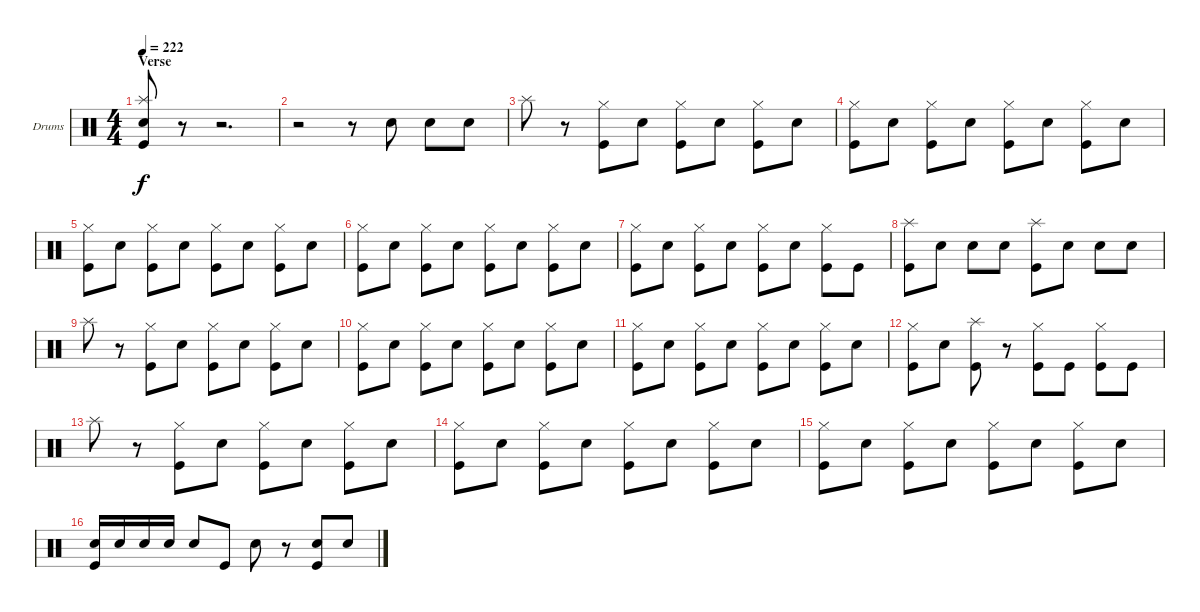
\defaultSystemsLayout 4
\bracketExtendMode groupsimilarinstruments
\firstSystemTrackNameOrientation horizontal
\otherSystemsTrackNameOrientation horizontal
\track ("Drumkit" "Drums") {mute instrument percussion}
\staff {score}
\articulation defaults
\ts (4 4)
\section ("" "Verse")
\tempo 222
\clef neutral
\ks c
("Snare (hit) 2" "Splash (hit)" "Kick (hit)").8{dy f} r.8 r.2{d} |
r.2 r.8 "Snare (hit) 2".8 "Snare (hit) 2".8 "Snare (hit) 2".8 |
"Splash (hit)".8 r.8 ("Hi-Hat (closed)" "Kick (hit)").8 "Snare (hit) 2".8 ("Hi-Hat (closed)" "Kick (hit)").8 "Snare (hit) 2".8 ("Hi-Hat (closed)" "Kick (hit)").8 "Snare (hit) 2".8 |
("Hi-Hat (closed)" "Kick (hit)").8 "Snare (hit) 2".8 ("Hi-Hat (closed)" "Kick (hit)").8 "Snare (hit) 2".8 ("Hi-Hat (closed)" "Kick (hit)").8 "Snare (hit) 2".8 ("Hi-Hat (closed)" "Kick (hit)").8 "Snare (hit) 2".8 |
("Hi-Hat (closed)" "Kick (hit)").8 "Snare (hit) 2".8 ("Hi-Hat (closed)" "Kick (hit)").8 "Snare (hit) 2".8 ("Hi-Hat (closed)" "Kick (hit)").8 "Snare (hit) 2".8 ("Hi-Hat (closed)" "Kick (hit)").8 "Snare (hit) 2".8 |
("Hi-Hat (closed)" "Kick (hit)").8 "Snare (hit) 2".8 ("Hi-Hat (closed)" "Kick (hit)").8 "Snare (hit) 2".8 ("Hi-Hat (closed)" "Kick (hit)").8 "Snare (hit) 2".8 ("Hi-Hat (closed)" "Kick (hit)").8 "Snare (hit) 2".8 |
("Hi-Hat (closed)" "Kick (hit)").8 "Snare (hit) 2".8 ("Hi-Hat (closed)" "Kick (hit)").8 "Snare (hit) 2".8 ("Hi-Hat (closed)" "Kick (hit)").8 "Snare (hit) 2".8 ("Hi-Hat (closed)" "Kick (hit)").8 "Kick (hit)".8 |
("Splash (hit)" "Kick (hit)").8 "Snare (hit) 2".8 "Snare (hit) 2".8 "Snare (hit) 2".8 ("Splash (hit)" "Kick (hit)").8 "Snare (hit) 2".8 "Snare (hit) 2".8 "Snare (hit) 2".8 |
"Splash (hit)".8 r.8 ("Hi-Hat (closed)" "Kick (hit)").8 "Snare (hit) 2".8 ("Hi-Hat (closed)" "Kick (hit)").8 "Snare (hit) 2".8 ("Hi-Hat (closed)" "Kick (hit)").8 "Snare (hit) 2".8 |
("Hi-Hat (closed)" "Kick (hit)").8 "Snare (hit) 2".8 ("Hi-Hat (closed)" "Kick (hit)").8 "Snare (hit) 2".8 ("Hi-Hat (closed)" "Kick (hit)").8 "Snare (hit) 2".8 ("Hi-Hat (closed)" "Kick (hit)").8 "Snare (hit) 2".8 |
("Hi-Hat (closed)" "Kick (hit)").8 "Snare (hit) 2".8 ("Hi-Hat (closed)" "Kick (hit)").8 "Snare (hit) 2".8 ("Hi-Hat (closed)" "Kick (hit)").8 "Snare (hit) 2".8 ("Hi-Hat (closed)" "Kick (hit)").8 "Snare (hit) 2".8 |
("Hi-Hat (closed)" "Kick (hit)").8 "Snare (hit) 2".8 ("Kick (hit)" "Splash (hit)").8 r.8 ("Hi-Hat (closed)" "Kick (hit)").8 "Kick (hit)".8 ("Hi-Hat (closed)" "Kick (hit)").8 "Kick (hit)".8 |
"Splash (hit)".8 r.8 ("Hi-Hat (closed)" "Kick (hit)").8 "Snare (hit) 2".8 ("Hi-Hat (closed)" "Kick (hit)").8 "Snare (hit) 2".8 ("Hi-Hat (closed)" "Kick (hit)").8 "Snare (hit) 2".8 |
("Hi-Hat (closed)" "Kick (hit)").8 "Snare (hit) 2".8 ("Hi-Hat (closed)" "Kick (hit)").8 "Snare (hit) 2".8 ("Hi-Hat (closed)" "Kick (hit)").8 "Snare (hit) 2".8 ("Hi-Hat (closed)" "Kick (hit)").8 "Snare (hit) 2".8 |
("Hi-Hat (closed)" "Kick (hit)").8 "Snare (hit) 2".8 ("Hi-Hat (closed)" "Kick (hit)").8 "Snare (hit) 2".8 ("Hi-Hat (closed)" "Kick (hit)").8 "Snare (hit) 2".8 ("Hi-Hat (closed)" "Kick (hit)").8 "Snare (hit) 2".8 |
("Kick (hit)" "Snare (hit) 2").16 "Snare (hit) 2".16 "Snare (hit) 2".16 "Snare (hit) 2".16 "Snare (hit) 2".8 "Kick (hit)".8 "Snare (hit) 2".8 r.8 ("Snare (hit) 2" "Kick (hit)").8 "Snare (hit) 2".8
